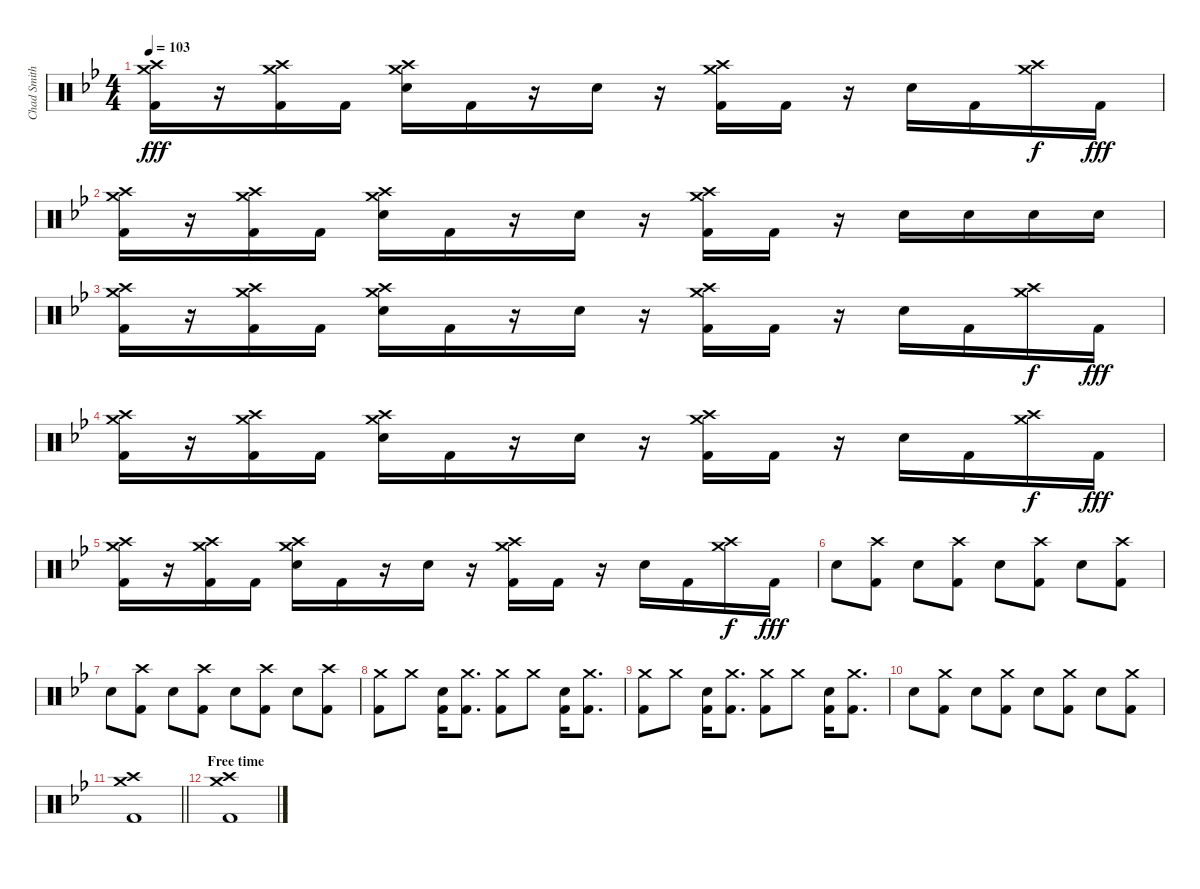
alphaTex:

\track ("Chad Smith (Drums)" "Chad Smith") {instrument percussion}
\staff {score}
\articulation defaults
\ts (4 4)
\tempo 103
\clef neutral
\ks bb
("Crash medium (hit)" "Crash high (hit)" "Kick (hit) 2").16{dy fff} r.16 ("Crash medium (hit)" "Crash high (hit)" "Kick (hit) 2").16 "Kick (hit) 2".16 ("Crash medium (hit)" "Crash high (hit)" "Snare (hit) 2").16 "Kick (hit) 2".16 r.16 "Snare (hit) 2".16 r.16 ("Crash medium (hit)" "Crash high (hit)" "Kick (hit) 2").16 "Kick (hit) 2".16 r.16 "Snare (hit) 2".16 "Kick (hit) 2".16 ("Crash medium (hit)" "Crash high (hit)").16{dy f} "Kick (hit) 2".16{dy fff} |
("Crash medium (hit)" "Crash high (hit)" "Kick (hit) 2").16 r.16 ("Crash medium (hit)" "Crash high (hit)" "Kick (hit) 2").16 "Kick (hit) 2".16 ("Crash medium (hit)" "Crash high (hit)" "Snare (hit) 2").16 "Kick (hit) 2".16 r.16 "Snare (hit) 2".16 r.16 ("Crash medium (hit)" "Crash high (hit)" "Kick (hit) 2").16 "Kick (hit) 2".16 r.16 "Snare (hit) 2".16 "Snare (hit) 2".16 "Snare (hit) 2".16 "Snare (hit) 2".16 |
("Crash medium (hit)" "Crash high (hit)" "Kick (hit) 2").16 r.16 ("Crash medium (hit)" "Crash high (hit)" "Kick (hit) 2").16 "Kick (hit) 2".16 ("Crash medium (hit)" "Crash high (hit)" "Snare (hit) 2").16 "Kick (hit) 2".16 r.16 "Snare (hit) 2".16 r.16 ("Crash medium (hit)" "Crash high (hit)" "Kick (hit) 2").16 "Kick (hit) 2".16 r.16 "Snare (hit) 2".16 "Kick (hit) 2".16 ("Crash medium (hit)" "Crash high (hit)").16{dy f} "Kick (hit) 2".16{dy fff} |
("Crash medium (hit)" "Crash high (hit)" "Kick (hit) 2").16 r.16 ("Crash medium (hit)" "Crash high (hit)" "Kick (hit) 2").16 "Kick (hit) 2".16 ("Crash medium (hit)" "Crash high (hit)" "Snare (hit) 2").16 "Kick (hit) 2".16 r.16 "Snare (hit) 2".16 r.16 ("Crash medium (hit)" "Crash high (hit)" "Kick (hit) 2").16 "Kick (hit) 2".16 r.16 "Snare (hit) 2".16 "Kick (hit) 2".16 ("Crash medium (hit)" "Crash high (hit)").16{dy f} "Kick (hit) 2".16{dy fff} |
("Crash medium (hit)" "Crash high (hit)" "Kick (hit) 2").16 r.16 ("Crash medium (hit)" "Crash high (hit)" "Kick (hit) 2").16 "Kick (hit) 2".16 ("Crash medium (hit)" "Crash high (hit)" "Snare (hit) 2").16 "Kick (hit) 2".16 r.16 "Snare (hit) 2".16 r.16 ("Crash medium (hit)" "Crash high (hit)" "Kick (hit) 2").16 "Kick (hit) 2".16 r.16 "Snare (hit) 2".16 "Kick (hit) 2".16 ("Crash medium (hit)" "Crash high (hit)").16{dy f} "Kick (hit) 2".16{dy fff} |
"Snare (hit) 2".8 ("Crash high (hit)" "Kick (hit) 2").8 "Snare (hit) 2".8 ("Crash high (hit)" "Kick (hit) 2").8 "Snare (hit) 2".8 ("Crash high (hit)" "Kick (hit) 2").8 "Snare (hit) 2".8 ("Crash high (hit)" "Kick (hit) 2").8 |
"Snare (hit) 2".8 ("Crash high (hit)" "Kick (hit) 2").8 "Snare (hit) 2".8 ("Crash high (hit)" "Kick (hit) 2").8 "Snare (hit) 2".8 ("Crash high (hit)" "Kick (hit) 2").8 "Snare (hit) 2".8 ("Crash high (hit)" "Kick (hit) 2").8 |
("Crash medium (hit)" "Kick (hit) 2").8 "Crash medium (hit)".8 ("Snare (hit) 2" "Kick (hit) 2").16 ("Crash medium (hit)" "Kick (hit) 2").8{d} ("Crash medium (hit)" "Kick (hit) 2").8 "Crash medium (hit)".8 ("Snare (hit) 2" "Kick (hit) 2").16 ("Crash medium (hit)" "Kick (hit) 2").8{d} |
("Crash medium (hit)" "Kick (hit) 2").8 "Crash medium (hit)".8 ("Snare (hit) 2" "Kick (hit) 2").16 ("Crash medium (hit)" "Kick (hit) 2").8{d} ("Crash medium (hit)" "Kick (hit) 2").8 "Crash medium (hit)".8 ("Snare (hit) 2" "Kick (hit) 2").16 ("Crash medium (hit)" "Kick (hit) 2").8{d} |
"Snare (hit) 2".8 ("Crash medium (hit)" "Kick (hit) 2").8 "Snare (hit) 2".8 ("Crash medium (hit)" "Kick (hit) 2").8 "Snare (hit) 2".8 ("Crash medium (hit)" "Kick (hit) 2").8 "Snare (hit) 2".8 ("Crash medium (hit)" "Kick (hit) 2").8 |
\barLineRight lightlight
("Crash medium (hit)" "Crash high (hit)" "Kick (hit) 2").1{volume 13} |
\section ("" "Free time")
("Crash medium (hit)" "Crash high (hit)" "Kick (hit) 2").1
